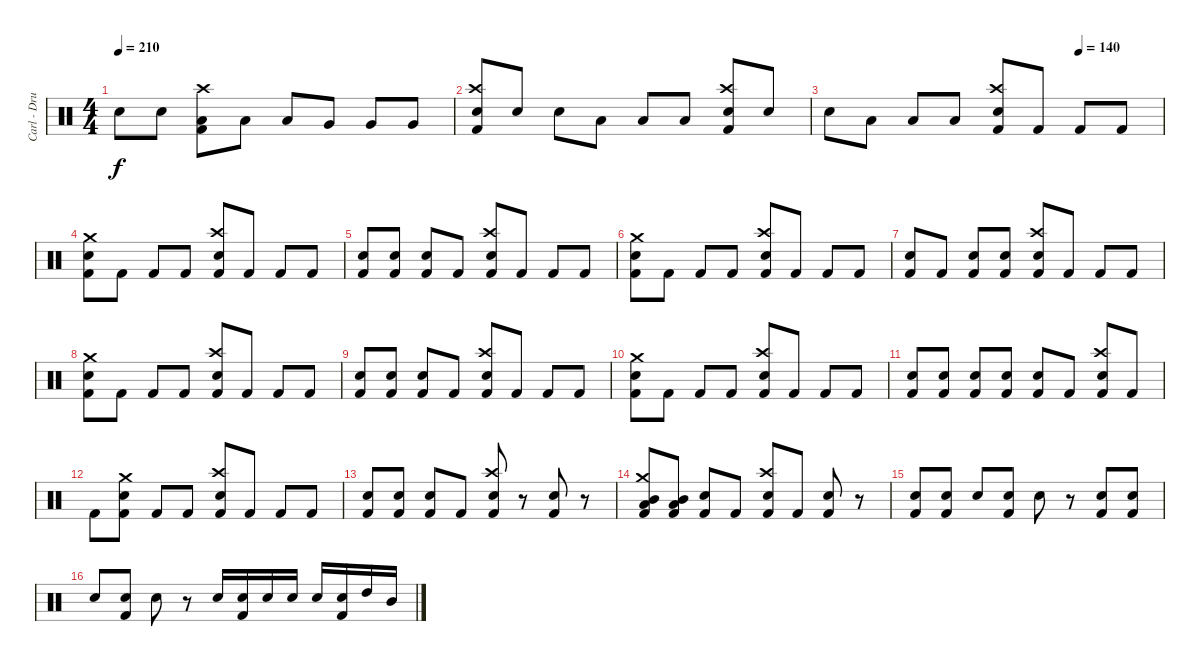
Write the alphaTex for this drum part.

\track ("Carl - Drums" "Carl - Dru") {instrument percussion}
\staff {score}
\articulation defaults
\ts (4 4)
\tempo 210
\clef neutral
\ks c "Electric Snare (hit)".8{dy f} "Electric Snare (hit)".8
("Crash high (hit)" "Low Tom (hit)" "Kick (hit) 2").8 "Low Tom (hit)".8 "Low Tom (hit)".8 "Very Low Tom (hit)".8 "Very Low Tom (hit)".8 "Very Low Tom (hit)".8 |
("Crash high (hit)" "Electric Snare (hit)" "Kick (hit) 2").8 "Electric Snare (hit)".8 "Electric Snare (hit)".8 "Low Tom (hit)".8 "Low Tom (hit)".8 "Low Tom (hit)".8 ("Crash high (hit)" "Electric Snare (hit)" "Kick (hit) 2").8 "Electric Snare (hit)".8 |
\tempo (140 0.75)
"Electric Snare (hit)".8 "Low Floor Tom (hit)".8 "Low Floor Tom (hit)".8 "Low Floor Tom (hit)".8 ("Crash high (hit)" "Electric Snare (hit)" "Kick (hit) 2").8 "Kick (hit) 2".8 "Kick (hit) 2".8 "Kick (hit) 2".8 |
("Crash medium (hit)" "Electric Snare (hit)" "Kick (hit) 2").8 "Kick (hit) 2".8 "Kick (hit) 2".8 "Kick (hit) 2".8 ("Crash high (hit)" "Electric Snare (hit)" "Kick (hit) 2").8 "Kick (hit) 2".8 "Kick (hit) 2".8 "Kick (hit) 2".8 |
("Electric Snare (hit)" "Kick (hit) 2").8 ("Electric Snare (hit)" "Kick (hit) 2").8 ("Electric Snare (hit)" "Kick (hit) 2").8 "Kick (hit) 2".8 ("Crash high (hit)" "Electric Snare (hit)" "Kick (hit) 2").8 "Kick (hit) 2".8 "Kick (hit) 2".8 "Kick (hit) 2".8 |
("Crash medium (hit)" "Electric Snare (hit)" "Kick (hit) 2").8 "Kick (hit) 2".8 "Kick (hit) 2".8 "Kick (hit) 2".8 ("Crash high (hit)" "Electric Snare (hit)" "Kick (hit) 2").8 "Kick (hit) 2".8 "Kick (hit) 2".8 "Kick (hit) 2".8 |
("Electric Snare (hit)" "Kick (hit) 2").8 "Kick (hit) 2".8 ("Electric Snare (hit)" "Kick (hit) 2").8 ("Electric Snare (hit)" "Kick (hit) 2").8 ("Crash high (hit)" "Electric Snare (hit)" "Kick (hit) 2").8 "Kick (hit) 2".8 "Kick (hit) 2".8 "Kick (hit) 2".8 |
("Crash medium (hit)" "Electric Snare (hit)" "Kick (hit) 2").8 "Kick (hit) 2".8 "Kick (hit) 2".8 "Kick (hit) 2".8 ("Crash high (hit)" "Electric Snare (hit)" "Kick (hit) 2").8 "Kick (hit) 2".8 "Kick (hit) 2".8 "Kick (hit) 2".8 |
("Electric Snare (hit)" "Kick (hit) 2").8 ("Electric Snare (hit)" "Kick (hit) 2").8 ("Electric Snare (hit)" "Kick (hit) 2").8 "Kick (hit) 2".8 ("Crash high (hit)" "Electric Snare (hit)" "Kick (hit) 2").8 "Kick (hit) 2".8 "Kick (hit) 2".8 "Kick (hit) 2".8 |
("Crash medium (hit)" "Electric Snare (hit)" "Kick (hit) 2").8 "Kick (hit) 2".8 "Kick (hit) 2".8 "Kick (hit) 2".8 ("Crash high (hit)" "Electric Snare (hit)" "Kick (hit) 2").8 "Kick (hit) 2".8 "Kick (hit) 2".8 "Kick (hit) 2".8 |
("Snare (hit)" "Kick (hit) 2").8 ("Electric Snare (hit)" "Kick (hit) 2").8 ("Electric Snare (hit)" "Kick (hit) 2").8 ("Electric Snare (hit)" "Kick (hit) 2").8 ("Electric Snare (hit)" "Kick (hit) 2").8 "Kick (hit) 2".8 ("Crash high (hit)" "Electric Snare (hit)" "Kick (hit) 2").8 "Kick (hit) 2".8 |
"Kick (hit) 2".8 ("Crash medium (hit)" "Electric Snare (hit)" "Kick (hit) 2").8 "Kick (hit) 2".8 "Kick (hit) 2".8 ("Crash high (hit)" "Electric Snare (hit)" "Kick (hit) 2").8 "Kick (hit) 2".8 "Kick (hit) 2".8 "Kick (hit) 2".8 |
("Electric Snare (hit)" "Kick (hit) 2").8 ("Electric Snare (hit)" "Kick (hit) 2").8 ("Electric Snare (hit)" "Kick (hit) 2").8 "Kick (hit) 2".8 ("Crash high (hit)" "Electric Snare (hit)" "Kick (hit) 2").8 r.8 ("Electric Snare (hit)" "Kick (hit) 2").8 r.8 |
("Mid Tom (hit)" "Crash medium (hit)" "Low Tom (hit)" "Kick (hit) 2").8 ("Mid Tom (hit)" "Low Tom (hit)" "Kick (hit) 2").8 ("Electric Snare (hit)" "Kick (hit) 2").8 "Kick (hit) 2".8 ("Crash high (hit)" "Electric Snare (hit)" "Kick (hit) 2").8 "Kick (hit) 2".8 ("Electric Snare (hit)" "Kick (hit) 2").8 r.8 |
("Electric Snare (hit)" "Kick (hit) 2").8 ("Electric Snare (hit)" "Kick (hit) 2").8 "Electric Snare (hit)".8 ("Electric Snare (hit)" "Kick (hit) 2").8 "Electric Snare (hit)".8 r.8 ("Electric Snare (hit)" "Kick (hit) 2").8 ("Electric Snare (hit)" "Kick (hit) 2").8 |
"Electric Snare (hit)".8 ("Electric Snare (hit)" "Kick (hit) 2").8 "Electric Snare (hit)".8 r.8 "Electric Snare (hit)".16 ("Electric Snare (hit)" "Kick (hit) 2").16 "Electric Snare (hit)".16 "Electric Snare (hit)".16 "Electric Snare (hit)".16 ("Electric Snare (hit)" "Kick (hit) 2").16 "High Tom (hit)".16 "Mid Tom (hit)".16
